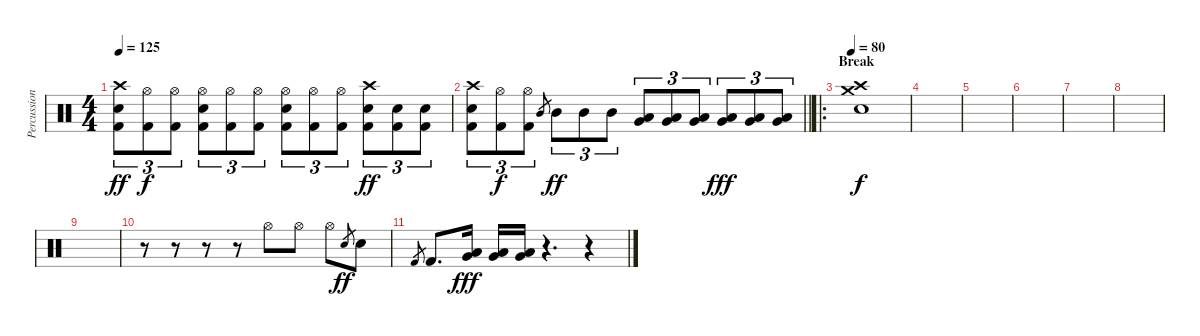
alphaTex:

\track ("Percussion" "Percussion") {instrument percussion}
\staff {score}
\articulation defaults
\ts (4 4)
\tempo 125
\clef neutral
\ks c
("Crash high (hit)" "Snare (hit) 2" "Kick (hit) 2").8{tu (3 2) dy ff} ("Hi-Hat (open)" "Kick (hit) 2").8{tu (3 2) dy f} ("Hi-Hat (open)" "Kick (hit) 2").8{tu (3 2)} ("Hi-Hat (open)" "Snare (hit) 2" "Kick (hit) 2").8{tu (3 2)} ("Hi-Hat (open)" "Kick (hit) 2").8{tu (3 2)} ("Hi-Hat (open)" "Kick (hit) 2").8{tu (3 2)} ("Hi-Hat (open)" "Snare (hit) 2" "Kick (hit) 2").8{tu (3 2)} ("Hi-Hat (open)" "Kick (hit) 2").8{tu (3 2)} ("Hi-Hat (open)" "Kick (hit) 2").8{tu (3 2)} ("Crash high (hit)" "Snare (hit) 2" "Kick (hit) 2").8{tu (3 2) dy ff} ("Snare (hit) 2" "Kick (hit) 2").8{tu (3 2)} ("Snare (hit) 2" "Kick (hit) 2").8{tu (3 2)} |
\barLineRight lightlight
("Crash high (hit)" "Snare (hit) 2" "Kick (hit) 2").8{tu (3 2)} ("Hi-Hat (open)" "Kick (hit) 2").8{tu (3 2) dy f} ("Hi-Hat (open)" "Kick (hit) 2").8{tu (3 2)} "Mid Tom (hit)".8{gr} "Mid Tom (hit)".8{tu (3 2) dy ff} "Mid Tom (hit)".8{tu (3 2)} "Mid Tom (hit)".8{tu (3 2)} ("Low Tom (hit)" "Very Low Tom (hit)").8{tu (3 2)} ("Low Tom (hit)" "Very Low Tom (hit)").8{tu (3 2)} ("Low Tom (hit)" "Very Low Tom (hit)").8{tu (3 2)} ("Low Floor Tom (hit)" "Very Low Tom (hit)").8{tu (3 2) dy fff} ("Low Floor Tom (hit)" "Very Low Tom (hit)").8{tu (3 2)} ("Low Floor Tom (hit)" "Very Low Tom (hit)").8{tu (3 2)} |
\ro
\section ("" "Break")
\tempo 80
("Snare (hit) 2" "Crash high (hit)" "Crash medium (hit)").1{dy f} |
|
|
|
|
|
|
r.8 r.8 r.8 r.8 "Hi-Hat (open)".8 "Hi-Hat (open)".8 "Hi-Hat (open)".8 "Snare (hit) 2".8{gr dy ff} "Snare (hit) 2".8 |
"Kick (hit) 2".8{gr} "Kick (hit) 2".8{d} ("Very Low Tom (hit)" "Low Tom (hit)").16{dy fff} ("Very Low Tom (hit)" "Low Floor Tom (hit)").16 ("Low Floor Tom (hit)" "Very Low Tom (hit)").16 r.4{d} r.4
